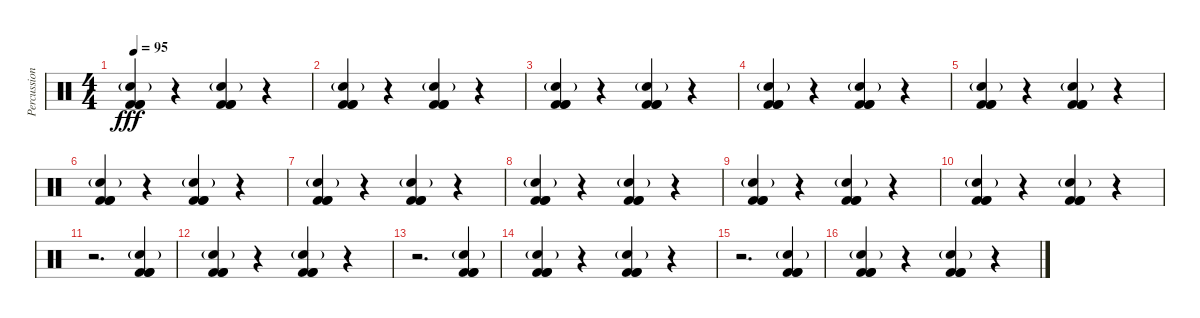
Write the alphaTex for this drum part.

\track ("Percussion" "Percussion") {instrument percussion}
\staff {score}
\articulation defaults
\ts (4 4)
\tempo 95
\clef neutral
\ks c
("Hand Clap (hit)"{g} "Kick (hit) 2" "Kick (hit) 2" "Kick (hit) 2").4{bd 120 dy fff} r.4 ("Hand Clap (hit)"{g} "Kick (hit) 2" "Kick (hit) 2" "Kick (hit) 2").4{bd 120} r.4 |
("Hand Clap (hit)"{g} "Kick (hit) 2" "Kick (hit) 2" "Kick (hit) 2").4{bd 120} r.4 ("Hand Clap (hit)"{g} "Kick (hit) 2" "Kick (hit) 2" "Kick (hit) 2").4{bd 120} r.4 |
("Hand Clap (hit)"{g} "Kick (hit) 2" "Kick (hit) 2" "Kick (hit) 2").4{bd 120} r.4 ("Hand Clap (hit)"{g} "Kick (hit) 2" "Kick (hit) 2" "Kick (hit) 2").4{bd 120} r.4 |
("Hand Clap (hit)"{g} "Kick (hit) 2" "Kick (hit) 2" "Kick (hit) 2").4{bd 120} r.4 ("Hand Clap (hit)"{g} "Kick (hit) 2" "Kick (hit) 2" "Kick (hit) 2").4{bd 120} r.4 |
("Hand Clap (hit)"{g} "Kick (hit) 2" "Kick (hit) 2" "Kick (hit) 2").4{bd 120} r.4 ("Hand Clap (hit)"{g} "Kick (hit) 2" "Kick (hit) 2" "Kick (hit) 2").4{bd 120} r.4 |
("Hand Clap (hit)"{g} "Kick (hit) 2" "Kick (hit) 2" "Kick (hit) 2").4{bd 120} r.4 ("Hand Clap (hit)"{g} "Kick (hit) 2" "Kick (hit) 2" "Kick (hit) 2").4{bd 120} r.4 |
("Hand Clap (hit)"{g} "Kick (hit) 2" "Kick (hit) 2" "Kick (hit) 2").4{bd 120} r.4 ("Hand Clap (hit)"{g} "Kick (hit) 2" "Kick (hit) 2" "Kick (hit) 2").4{bd 120} r.4 |
("Hand Clap (hit)"{g} "Kick (hit) 2" "Kick (hit) 2" "Kick (hit) 2").4{bd 120} r.4 ("Hand Clap (hit)"{g} "Kick (hit) 2" "Kick (hit) 2" "Kick (hit) 2").4{bd 120} r.4 |
("Hand Clap (hit)"{g} "Kick (hit) 2" "Kick (hit) 2" "Kick (hit) 2").4{bd 120} r.4 ("Hand Clap (hit)"{g} "Kick (hit) 2" "Kick (hit) 2" "Kick (hit) 2").4{bd 120} r.4 |
("Hand Clap (hit)"{g} "Kick (hit) 2" "Kick (hit) 2" "Kick (hit) 2").4{bd 120} r.4 ("Hand Clap (hit)"{g} "Kick (hit) 2" "Kick (hit) 2" "Kick (hit) 2").4{bd 120} r.4 |
r.2{d} ("Hand Clap (hit)"{g} "Kick (hit) 2" "Kick (hit) 2" "Kick (hit) 2").4{bd 120} |
("Hand Clap (hit)"{g} "Kick (hit) 2" "Kick (hit) 2" "Kick (hit) 2").4{bd 120} r.4 ("Hand Clap (hit)"{g} "Kick (hit) 2" "Kick (hit) 2" "Kick (hit) 2").4{bd 120} r.4 |
r.2{d} ("Hand Clap (hit)"{g} "Kick (hit) 2" "Kick (hit) 2" "Kick (hit) 2").4{bd 120} |
("Hand Clap (hit)"{g} "Kick (hit) 2" "Kick (hit) 2" "Kick (hit) 2").4{bd 120} r.4 ("Hand Clap (hit)"{g} "Kick (hit) 2" "Kick (hit) 2" "Kick (hit) 2").4{bd 120} r.4 |
r.2{d} ("Hand Clap (hit)"{g} "Kick (hit) 2" "Kick (hit) 2" "Kick (hit) 2").4{bd 120} |
("Hand Clap (hit)"{g} "Kick (hit) 2" "Kick (hit) 2" "Kick (hit) 2").4{bd 120} r.4 ("Hand Clap (hit)"{g} "Kick (hit) 2" "Kick (hit) 2" "Kick (hit) 2").4{bd 120} r.4
